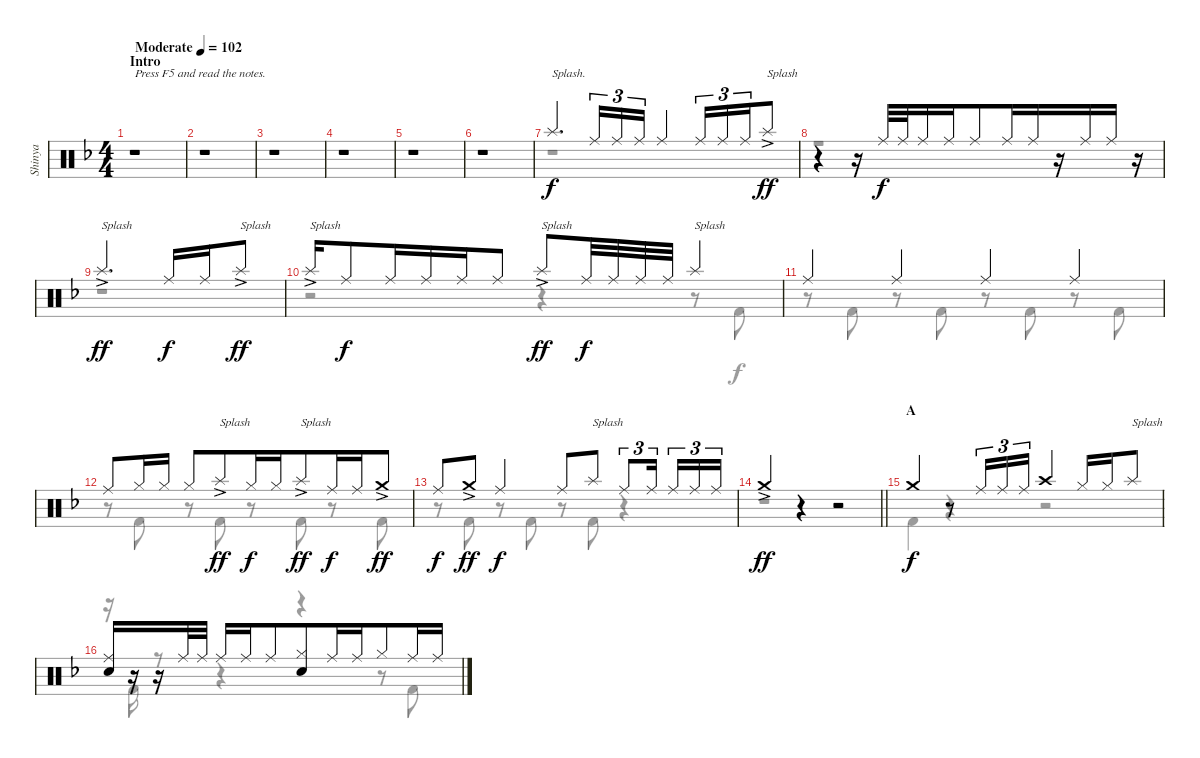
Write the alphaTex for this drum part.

\track ("Shinya" "Shinya") {mute instrument percussion}
\staff {score}
\articulation defaults
\voice
\ts (4 4)
\section ("" "Intro")
\tempo (102 "Moderate")
\clef neutral
\ks f
r.1{txt "Press F5 and read the notes." dy f} |
r.1 |
r.1 |
r.1 |
r.1 |
r.1 |
"Splash (hit)".4{d txt "Splash." beam merge} "Ride (middle)".16{tu (3 2)} "Ride (middle)".16{tu (3 2)} "Ride (middle)".16{tu (3 2)} "Ride (middle)".4{beam merge} "Ride (middle)".16{tu (3 2)} "Ride (middle)".16{tu (3 2)} "Ride (middle)".16{tu (3 2) beam merge} "Splash (hit)"{ac}.8{txt "Splash" dy ff} |
r.4 r.16{beam merge} "Ride (middle)".32{dy f} "Ride (middle)".32 "Ride (middle)".16{beam merge} "Ride (middle)".16{beam merge} "Ride (middle)".8 "Ride (middle)".16 "Ride (middle)".16{beam merge} r.16 "Ride (middle)".16{beam merge} "Ride (middle)".16{beam merge} r.16 |
"Splash (hit)"{ac}.2{d txt "Splash" dy ff} "Ride (middle)".16{dy f} "Ride (middle)".16{beam merge} "Splash (hit)"{ac}.8{txt "Splash" dy ff} |
"Splash (hit)"{ac}.16{txt "Splash"} "Ride (middle)".8{dy f} "Ride (middle)".16{beam merge} "Ride (middle)".16{beam merge} "Ride (middle)".16{beam merge} "Ride (middle)".8 "Splash (hit)"{ac}.8{txt "Splash" dy ff beam merge} "Ride (middle)".32{dy f} "Ride (middle)".32 "Ride (middle)".32{beam merge} "Ride (middle)".32 "Splash (hit)".4{txt "Splash"} |
"Ride (middle)".4 "Ride (middle)".4 "Ride (middle)".4{beam merge} "Ride (middle)".4 |
"Ride (middle)".8{beam merge} "Hi-Hat (closed)".16 "Hi-Hat (closed)".16 "Hi-Hat (closed)".8{beam merge} "Splash (hit)"{ac}.8{txt "Splash" dy ff beam merge} "Hi-Hat (closed)".16{dy f beam merge} "Hi-Hat (closed)".16 "Splash (hit)"{ac}.8{txt "Splash" dy ff beam merge} "Ride (middle)".16{dy f beam merge} "Ride (middle)".16 "Crash medium (hit)"{ac}.8{dy ff} |
"Ride (middle)".8{dy f} "Crash medium (hit)"{ac}.8{dy ff} "Ride (middle)".4{dy f beam merge} "Ride (middle)".8 "Splash (hit)".8{txt "Splash"} "Ride (middle)".8{tu (3 2) beam merge} "Ride (middle)".16{tu (3 2) beam splitsecondary} "Ride (middle)".16{tu (3 2)} "Ride (middle)".16{tu (3 2)} "Ride (middle)".16{tu (3 2)} |
\barLineRight lightlight "Crash medium (hit)"{ac}.4{dy ff}
r.4 r.2 |
\section ("" "A")
"Crash medium (hit)".4{dy f} r.8 "Ride (middle)".16{tu (3 2)} "Ride (middle)".16{tu (3 2) beam merge} "Ride (middle)".16{tu (3 2) beam merge} "Crash high (hit)".4 "Hi-Hat (closed)".16{beam merge} "Hi-Hat (closed)".16 "Splash (hit)".8{txt "Splash"} |
("Ride (middle)" "Snare (hit) 2").16 r.16{beam merge} r.16{beam merge} "Ride (middle)".32 "Ride (middle)".32 "Ride (middle)".16 "Ride (middle)".16{beam merge} "Ride (middle)".8{beam merge} ("Hi-Hat (closed)" "Snare (hit) 2").8 "Ride (middle)".16 "Ride (middle)".16{beam merge} "Hi-Hat (closed)".8 "Ride (middle)".16 "Ride (middle)".16
\voice
\clef neutral
\ottava regular
\simile none
\ks f
r.1{dy f} |
r.1 |
r.1 |
r.1 |
r.1 |
r.1 |
r.1 |
r.1 |
r.1 |
r.2 r.4 r.8 "Kick (hit) 2".8 |
r.8 "Kick (hit) 2".8 r.8 "Kick (hit) 2".8 r.8 "Kick (hit) 2".8 r.8 "Kick (hit) 2".8 |
r.8 "Kick (hit) 2".8 r.8 "Kick (hit) 2".8 r.8 "Kick (hit) 2".8 r.8 "Kick (hit) 2".8 |
r.8 "Kick (hit) 2".8 r.8 "Kick (hit) 2".8 r.8 "Kick (hit) 2".8 r.4 |
\barLineRight lightlight
r.1 |
"Kick (hit) 2".4 r.4 r.2 |
r.16 "Kick (hit) 2".16 r.8 r.4 r.4 r.8 "Kick (hit) 2".8
